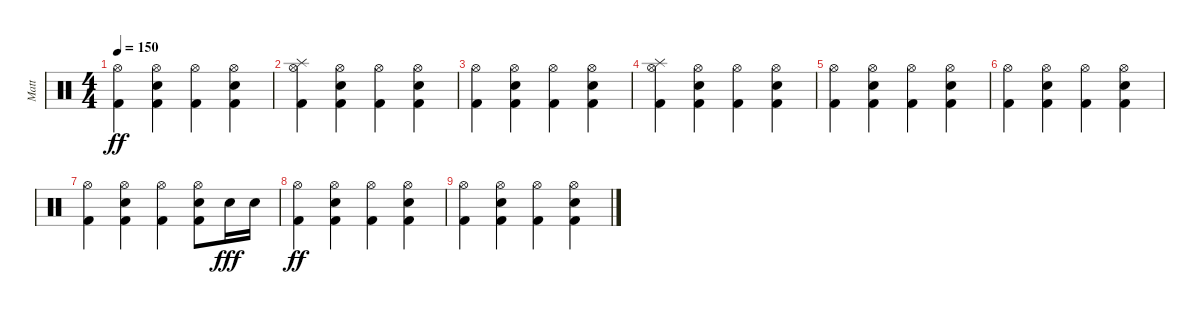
\track ("Matt" "Matt") {instrument percussion}
\staff {score}
\articulation defaults
\ts (4 4)
\tempo 150
\clef neutral
\ks c
("Hi-Hat (open)" "Kick (hit) 2").4{dy ff} ("Hi-Hat (open)" "Electric Snare (hit)" "Kick (hit) 2").4 ("Hi-Hat (open)" "Kick (hit) 2").4 ("Hi-Hat (open)" "Electric Snare (hit)" "Kick (hit) 2").4 |
("Splash (hit)" "Hi-Hat (open)" "Kick (hit) 2").4 ("Hi-Hat (open)" "Electric Snare (hit)" "Kick (hit) 2").4 ("Hi-Hat (open)" "Kick (hit) 2").4 ("Hi-Hat (open)" "Electric Snare (hit)" "Kick (hit) 2").4 |
("Hi-Hat (open)" "Kick (hit) 2").4 ("Hi-Hat (open)" "Electric Snare (hit)" "Kick (hit) 2").4 ("Hi-Hat (open)" "Kick (hit) 2").4 ("Hi-Hat (open)" "Electric Snare (hit)" "Kick (hit) 2").4 |
("Splash (hit)" "Hi-Hat (open)" "Kick (hit) 2").4 ("Hi-Hat (open)" "Electric Snare (hit)" "Kick (hit) 2").4 ("Hi-Hat (open)" "Kick (hit) 2").4 ("Hi-Hat (open)" "Electric Snare (hit)" "Kick (hit) 2").4 |
("Hi-Hat (open)" "Kick (hit) 2").4 ("Hi-Hat (open)" "Electric Snare (hit)" "Kick (hit) 2").4 ("Hi-Hat (open)" "Kick (hit) 2").4 ("Hi-Hat (open)" "Electric Snare (hit)" "Kick (hit) 2").4 |
("Hi-Hat (open)" "Kick (hit) 2").4 ("Hi-Hat (open)" "Electric Snare (hit)" "Kick (hit) 2").4 ("Hi-Hat (open)" "Kick (hit) 2").4 ("Hi-Hat (open)" "Electric Snare (hit)" "Kick (hit) 2").4 |
("Hi-Hat (open)" "Kick (hit) 2").4 ("Hi-Hat (open)" "Electric Snare (hit)" "Kick (hit) 2").4 ("Hi-Hat (open)" "Kick (hit) 2").4 ("Hi-Hat (open)" "Electric Snare (hit)" "Kick (hit) 2").8 "Electric Snare (hit)".16{dy fff} "Electric Snare (hit)".16 |
("Hi-Hat (open)" "Kick (hit) 2").4{dy ff} ("Hi-Hat (open)" "Electric Snare (hit)" "Kick (hit) 2").4 ("Hi-Hat (open)" "Kick (hit) 2").4 ("Hi-Hat (open)" "Electric Snare (hit)" "Kick (hit) 2").4 |
("Hi-Hat (open)" "Kick (hit) 2").4 ("Hi-Hat (open)" "Electric Snare (hit)" "Kick (hit) 2").4 ("Hi-Hat (open)" "Kick (hit) 2").4 ("Hi-Hat (open)" "Electric Snare (hit)" "Kick (hit) 2").4
